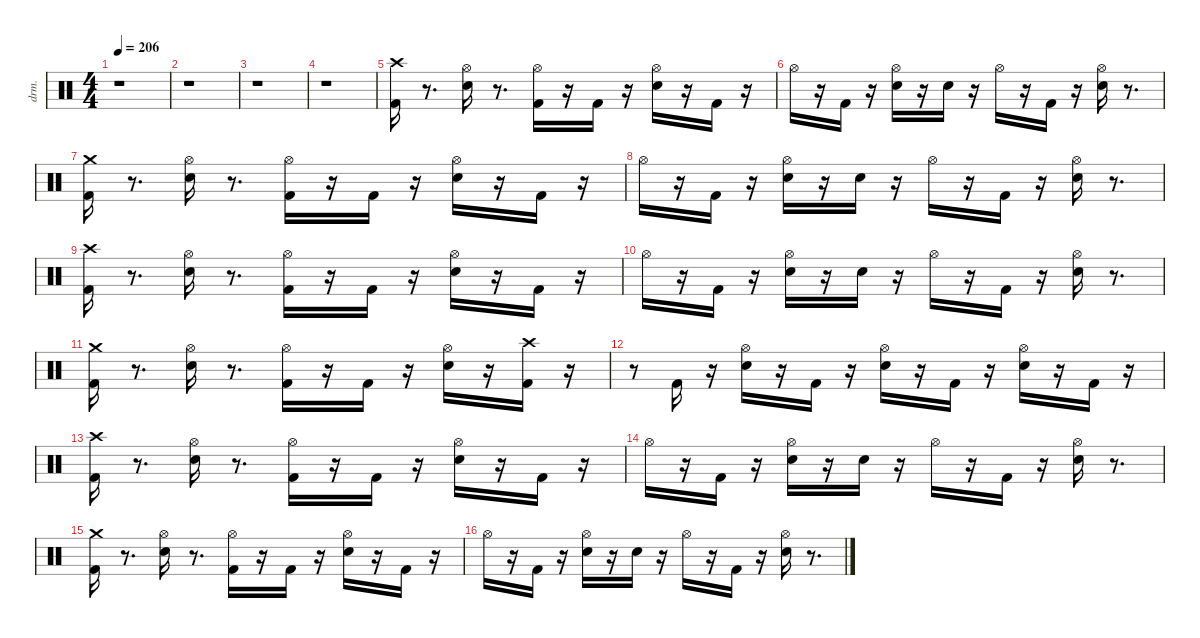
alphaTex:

\defaultSystemsLayout 4
\hideDynamics
\bracketExtendMode nobrackets
\otherSystemsTrackNameOrientation horizontal
\track ("EZdrummer 3" "drm.") {instrument percussion}
\staff {score}
\articulation defaults
\ts (4 4)
\tempo 206
\clef neutral
\ks c
r.1{dy ff beam Down} |
r.1{beam Down} |
r.1{beam Down} |
r.1{beam Down} |
("Kick (hit) 2" "Crash high (hit)"{acc #}).16{beam Down} r.8{d beam Down} ("Snare (hit) 2" "Hi-Hat (open)"{acc #}).16{beam Down} r.8{d beam Down} ("Kick (hit) 2" "Hi-Hat (open)"{acc #}).16{dy f beam Down} r.16{beam Down} "Kick (hit) 2".16{dy ff beam Up} r.16{beam Up} ("Snare (hit) 2" "Hi-Hat (open)"{acc #}).16{beam Down} r.16{beam Down} "Kick (hit) 2".16{beam Up} r.16{beam Up} |
"Hi-Hat (open)"{acc #}.16{dy fff beam Down} r.16{beam Down} "Kick (hit) 2".16{dy ff beam Up} r.16{beam Up} ("Snare (hit) 2" "Hi-Hat (open)"{acc #}).16{beam Down} r.16{beam Down} "Snare (hit) 2".16{dy p beam Down} r.16{beam Down} "Hi-Hat (open)"{acc #}.16{dy ff beam Down} r.16{beam Down} "Kick (hit) 2".16{beam Up} r.16{beam Up} ("Snare (hit) 2" "Hi-Hat (open)"{acc #}).16{beam Down} r.8{d beam Down} |
("Kick (hit) 2" "Crash medium (hit)").16{beam Down} r.8{d beam Down} ("Snare (hit) 2" "Hi-Hat (open)"{acc #}).16{beam Down} r.8{d beam Down} ("Kick (hit) 2" "Hi-Hat (open)"{acc #}).16{dy mf beam Down} r.16{beam Down} "Kick (hit) 2".16{dy ff beam Up} r.16{beam Up} ("Snare (hit) 2" "Hi-Hat (open)"{acc #}).16{beam Down} r.16{beam Down} "Kick (hit) 2".16{beam Up} r.16{beam Up} |
"Hi-Hat (open)"{acc #}.16{dy fff beam Down} r.16{beam Down} "Kick (hit) 2".16{dy ff beam Up} r.16{beam Up} ("Snare (hit) 2" "Hi-Hat (open)"{acc #}).16{beam Down} r.16{beam Down} "Snare (hit) 2".16{dy p beam Down} r.16{beam Down} "Hi-Hat (open)"{acc #}.16{dy ff beam Down} r.16{beam Down} "Kick (hit) 2".16{beam Up} r.16{beam Up} ("Snare (hit) 2" "Hi-Hat (open)"{acc #}).16{beam Down} r.8{d beam Down} |
("Kick (hit) 2" "Crash high (hit)"{acc #}).16{beam Down} r.8{d beam Down} ("Snare (hit) 2" "Hi-Hat (open)"{acc #}).16{beam Down} r.8{d beam Down} ("Kick (hit) 2" "Hi-Hat (open)"{acc #}).16{dy f beam Down} r.16{beam Down} "Kick (hit) 2".16{dy ff beam Up} r.16{beam Up} ("Snare (hit) 2" "Hi-Hat (open)"{acc #}).16{beam Down} r.16{beam Down} "Kick (hit) 2".16{beam Up} r.16{beam Up} |
\ks aminor "Hi-Hat (open)"{acc #}.16{dy fff beam Down}
r.16{beam Down} "Kick (hit) 2".16{dy ff beam Up} r.16{beam Up} ("Snare (hit) 2" "Hi-Hat (open)"{acc #}).16{beam Down} r.16{beam Down} "Snare (hit) 2".16{dy p beam Down} r.16{beam Down} "Hi-Hat (open)"{acc #}.16{dy ff beam Down} r.16{beam Down} "Kick (hit) 2".16{beam Up} r.16{beam Up} ("Snare (hit) 2" "Hi-Hat (open)"{acc #}).16{beam Down} r.8{d beam Down} |
("Kick (hit) 2" "Crash medium (hit)").16{beam Down} r.8{d beam Down} ("Snare (hit) 2" "Hi-Hat (open)"{acc #}).16{beam Down} r.8{d beam Down} ("Kick (hit) 2" "Hi-Hat (open)"{acc #}).16{dy f beam Down} r.16{beam Down} "Kick (hit) 2".16{dy ff beam Up} r.16{beam Up} ("Snare (hit) 2" "Hi-Hat (open)"{acc #}).16{beam Down} r.16{beam Down} ("Kick (hit) 2" "Crash high (hit)"{acc #}).16{beam Down} r.16{beam Down} |
r.8{beam Down} "Kick (hit) 2".16{beam Up} r.16{beam Up} ("Snare (hit) 2" "Hi-Hat (open)"{acc #}).16{beam Down} r.16{beam Down} "Kick (hit) 2".16{beam Up} r.16{beam Up} ("Snare (hit) 2" "Hi-Hat (open)"{acc #}).16{beam Down} r.16{beam Down} "Kick (hit) 2".16{beam Up} r.16{beam Up} ("Snare (hit) 2" "Hi-Hat (open)"{acc #}).16{beam Down} r.16{beam Down} "Kick (hit) 2".16{dy pp beam Up} r.16{beam Up} |
("Kick (hit) 2" "Crash high (hit)"{acc #}).16{dy ff beam Down} r.8{d beam Down} ("Snare (hit) 2" "Hi-Hat (open)"{acc #}).16{beam Down} r.8{d beam Down} ("Kick (hit) 2" "Hi-Hat (open)"{acc #}).16{dy f beam Down} r.16{beam Down} "Kick (hit) 2".16{dy ff beam Up} r.16{beam Up} ("Snare (hit) 2" "Hi-Hat (open)"{acc #}).16{beam Down} r.16{beam Down} "Kick (hit) 2".16{beam Up} r.16{beam Up} |
"Hi-Hat (open)"{acc #}.16{dy fff beam Down} r.16{beam Down} "Kick (hit) 2".16{dy ff beam Up} r.16{beam Up} ("Snare (hit) 2" "Hi-Hat (open)"{acc #}).16{beam Down} r.16{beam Down} "Snare (hit) 2".16{dy p beam Down} r.16{beam Down} "Hi-Hat (open)"{acc #}.16{dy ff beam Down} r.16{beam Down} "Kick (hit) 2".16{beam Up} r.16{beam Up} ("Snare (hit) 2" "Hi-Hat (open)"{acc #}).16{beam Down} r.8{d beam Down} |
("Kick (hit) 2" "Crash medium (hit)").16{beam Down} r.8{d beam Down} ("Snare (hit) 2" "Hi-Hat (open)"{acc #}).16{beam Down} r.8{d beam Down} ("Kick (hit) 2" "Hi-Hat (open)"{acc #}).16{dy mf beam Down} r.16{beam Down} "Kick (hit) 2".16{dy ff beam Up} r.16{beam Up} ("Snare (hit) 2" "Hi-Hat (open)"{acc #}).16{beam Down} r.16{beam Down} "Kick (hit) 2".16{beam Up} r.16{beam Up} |
"Hi-Hat (open)"{acc #}.16{dy fff beam Down} r.16{beam Down} "Kick (hit) 2".16{dy ff beam Up} r.16{beam Up} ("Snare (hit) 2" "Hi-Hat (open)"{acc #}).16{beam Down} r.16{beam Down} "Snare (hit) 2".16{dy p beam Down} r.16{beam Down} "Hi-Hat (open)"{acc #}.16{dy ff beam Down} r.16{beam Down} "Kick (hit) 2".16{beam Up} r.16{beam Up} ("Snare (hit) 2" "Hi-Hat (open)"{acc #}).16{beam Down} r.8{d beam Down}
